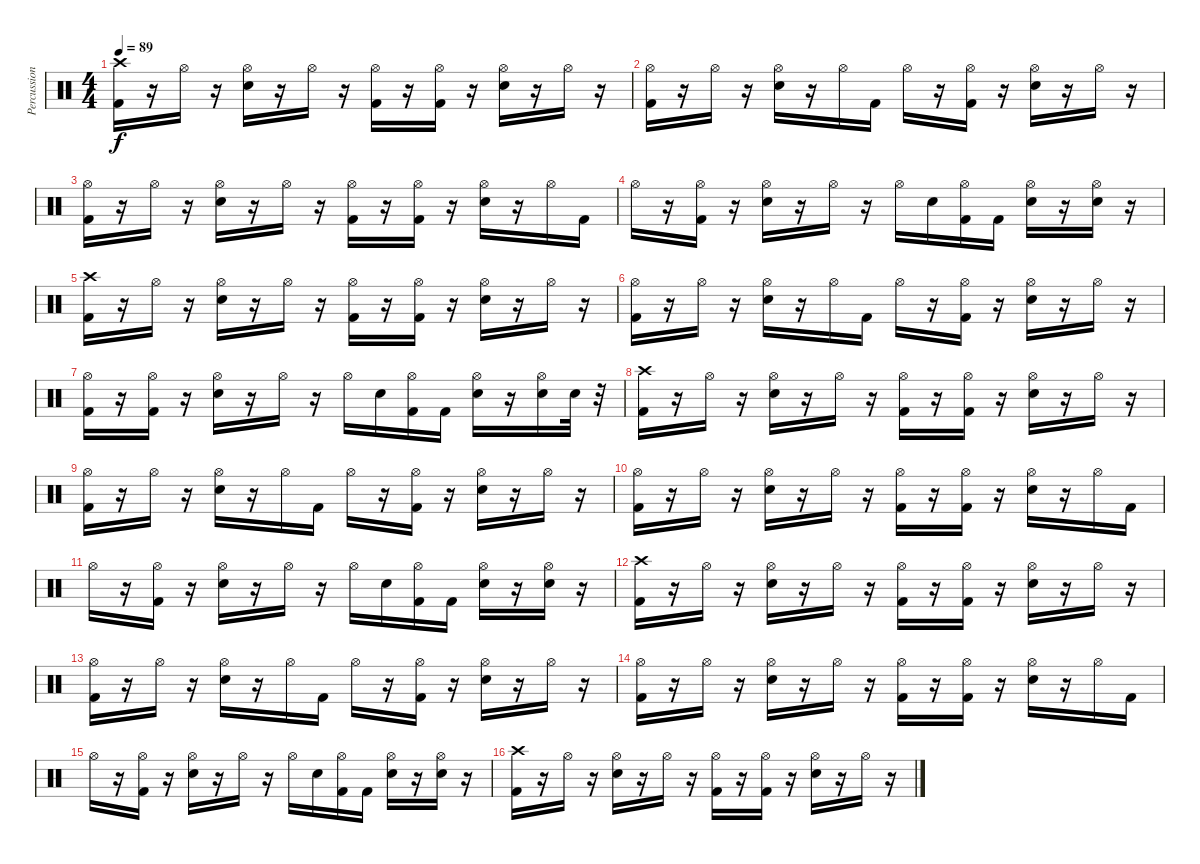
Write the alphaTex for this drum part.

\track ("Percussion" "Percussion") {instrument percussion}
\staff {score}
\articulation defaults
\ts (4 4)
\tempo 89
\clef neutral
\ks c
("Kick (hit) 2" "Crash high (hit)").16{dy f} r.16 "Hi-Hat (open)".16 r.16 ("Snare (hit) 2" "Hi-Hat (open)").16 r.16 "Hi-Hat (open)".16 r.16 ("Kick (hit) 2" "Hi-Hat (open)").16 r.16 ("Kick (hit) 2" "Hi-Hat (open)").16 r.16 ("Snare (hit) 2" "Hi-Hat (open)").16 r.16 "Hi-Hat (open)".16 r.16 |
("Kick (hit) 2" "Hi-Hat (open)").16 r.16 "Hi-Hat (open)".16 r.16 ("Snare (hit) 2" "Hi-Hat (open)").16 r.16 "Hi-Hat (open)".16 "Kick (hit) 2".16 "Hi-Hat (open)".16 r.16 ("Kick (hit) 2" "Hi-Hat (open)").16 r.16 ("Snare (hit) 2" "Hi-Hat (open)").16 r.16 "Hi-Hat (open)".16 r.16 |
("Kick (hit) 2" "Hi-Hat (open)").16 r.16 "Hi-Hat (open)".16 r.16 ("Snare (hit) 2" "Hi-Hat (open)").16 r.16 "Hi-Hat (open)".16 r.16 ("Kick (hit) 2" "Hi-Hat (open)").16 r.16 ("Kick (hit) 2" "Hi-Hat (open)").16 r.16 ("Snare (hit) 2" "Hi-Hat (open)").16 r.16 "Hi-Hat (open)".16 "Kick (hit) 2".16 |
"Hi-Hat (open)".16 r.16 ("Kick (hit) 2" "Hi-Hat (open)").16 r.16 ("Snare (hit) 2" "Hi-Hat (open)").16 r.16 "Hi-Hat (open)".16 r.16 "Hi-Hat (open)".16 "Snare (hit) 2".16 ("Kick (hit) 2" "Hi-Hat (open)").16 "Kick (hit) 2".16 ("Snare (hit) 2" "Hi-Hat (open)").16 r.16 ("Snare (hit) 2" "Hi-Hat (open)").16 r.16 |
("Kick (hit) 2" "Crash high (hit)").16 r.16 "Hi-Hat (open)".16 r.16 ("Snare (hit) 2" "Hi-Hat (open)").16 r.16 "Hi-Hat (open)".16 r.16 ("Kick (hit) 2" "Hi-Hat (open)").16 r.16 ("Kick (hit) 2" "Hi-Hat (open)").16 r.16 ("Snare (hit) 2" "Hi-Hat (open)").16 r.16 "Hi-Hat (open)".16 r.16 |
("Kick (hit) 2" "Hi-Hat (open)").16 r.16 "Hi-Hat (open)".16 r.16 ("Snare (hit) 2" "Hi-Hat (open)").16 r.16 "Hi-Hat (open)".16 "Kick (hit) 2".16 "Hi-Hat (open)".16 r.16 ("Kick (hit) 2" "Hi-Hat (open)").16 r.16 ("Snare (hit) 2" "Hi-Hat (open)").16 r.16 "Hi-Hat (open)".16 r.16 |
("Kick (hit) 2" "Hi-Hat (open)").16 r.16 ("Kick (hit) 2" "Hi-Hat (open)").16 r.16 ("Snare (hit) 2" "Hi-Hat (open)").16 r.16 "Hi-Hat (open)".16 r.16 "Hi-Hat (open)".16 "Snare (hit) 2".16 ("Kick (hit) 2" "Hi-Hat (open)").16 "Kick (hit) 2".16 ("Snare (hit) 2" "Hi-Hat (open)").16 r.16 ("Snare (hit) 2" "Hi-Hat (open)").16 "Snare (hit) 2".32 r.32 |
("Kick (hit) 2" "Crash high (hit)").16 r.16 "Hi-Hat (open)".16 r.16 ("Snare (hit) 2" "Hi-Hat (open)").16 r.16 "Hi-Hat (open)".16 r.16 ("Kick (hit) 2" "Hi-Hat (open)").16 r.16 ("Kick (hit) 2" "Hi-Hat (open)").16 r.16 ("Snare (hit) 2" "Hi-Hat (open)").16 r.16 "Hi-Hat (open)".16 r.16 |
("Kick (hit) 2" "Hi-Hat (open)").16 r.16 "Hi-Hat (open)".16 r.16 ("Snare (hit) 2" "Hi-Hat (open)").16 r.16 "Hi-Hat (open)".16 "Kick (hit) 2".16 "Hi-Hat (open)".16 r.16 ("Kick (hit) 2" "Hi-Hat (open)").16 r.16 ("Snare (hit) 2" "Hi-Hat (open)").16 r.16 "Hi-Hat (open)".16 r.16 |
("Kick (hit) 2" "Hi-Hat (open)").16 r.16 "Hi-Hat (open)".16 r.16 ("Snare (hit) 2" "Hi-Hat (open)").16 r.16 "Hi-Hat (open)".16 r.16 ("Kick (hit) 2" "Hi-Hat (open)").16 r.16 ("Kick (hit) 2" "Hi-Hat (open)").16 r.16 ("Snare (hit) 2" "Hi-Hat (open)").16 r.16 "Hi-Hat (open)".16 "Kick (hit) 2".16 |
"Hi-Hat (open)".16 r.16 ("Kick (hit) 2" "Hi-Hat (open)").16 r.16 ("Snare (hit) 2" "Hi-Hat (open)").16 r.16 "Hi-Hat (open)".16 r.16 "Hi-Hat (open)".16 "Snare (hit) 2".16 ("Kick (hit) 2" "Hi-Hat (open)").16 "Kick (hit) 2".16 ("Snare (hit) 2" "Hi-Hat (open)").16 r.16 ("Snare (hit) 2" "Hi-Hat (open)").16 r.16 |
("Kick (hit) 2" "Crash high (hit)").16 r.16 "Hi-Hat (open)".16 r.16 ("Snare (hit) 2" "Hi-Hat (open)").16 r.16 "Hi-Hat (open)".16 r.16 ("Kick (hit) 2" "Hi-Hat (open)").16 r.16 ("Kick (hit) 2" "Hi-Hat (open)").16 r.16 ("Snare (hit) 2" "Hi-Hat (open)").16 r.16 "Hi-Hat (open)".16 r.16 |
("Kick (hit) 2" "Hi-Hat (open)").16 r.16 "Hi-Hat (open)".16 r.16 ("Snare (hit) 2" "Hi-Hat (open)").16 r.16 "Hi-Hat (open)".16 "Kick (hit) 2".16 "Hi-Hat (open)".16 r.16 ("Kick (hit) 2" "Hi-Hat (open)").16 r.16 ("Snare (hit) 2" "Hi-Hat (open)").16 r.16 "Hi-Hat (open)".16 r.16 |
("Kick (hit) 2" "Hi-Hat (open)").16 r.16 "Hi-Hat (open)".16 r.16 ("Snare (hit) 2" "Hi-Hat (open)").16 r.16 "Hi-Hat (open)".16 r.16 ("Kick (hit) 2" "Hi-Hat (open)").16 r.16 ("Kick (hit) 2" "Hi-Hat (open)").16 r.16 ("Snare (hit) 2" "Hi-Hat (open)").16 r.16 "Hi-Hat (open)".16 "Kick (hit) 2".16 |
"Hi-Hat (open)".16{volume 0} r.16 ("Kick (hit) 2" "Hi-Hat (open)").16 r.16 ("Snare (hit) 2" "Hi-Hat (open)").16 r.16 "Hi-Hat (open)".16 r.16 "Hi-Hat (open)".16 "Snare (hit) 2".16 ("Kick (hit) 2" "Hi-Hat (open)").16 "Kick (hit) 2".16 ("Snare (hit) 2" "Hi-Hat (open)").16 r.16 ("Snare (hit) 2" "Hi-Hat (open)").16 r.16 |
("Kick (hit) 2" "Crash high (hit)").16 r.16 "Hi-Hat (open)".16 r.16 ("Snare (hit) 2" "Hi-Hat (open)").16 r.16 "Hi-Hat (open)".16 r.16 ("Kick (hit) 2" "Hi-Hat (open)").16 r.16 ("Kick (hit) 2" "Hi-Hat (open)").16 r.16 ("Snare (hit) 2" "Hi-Hat (open)").16 r.16 "Hi-Hat (open)".16 r.16
